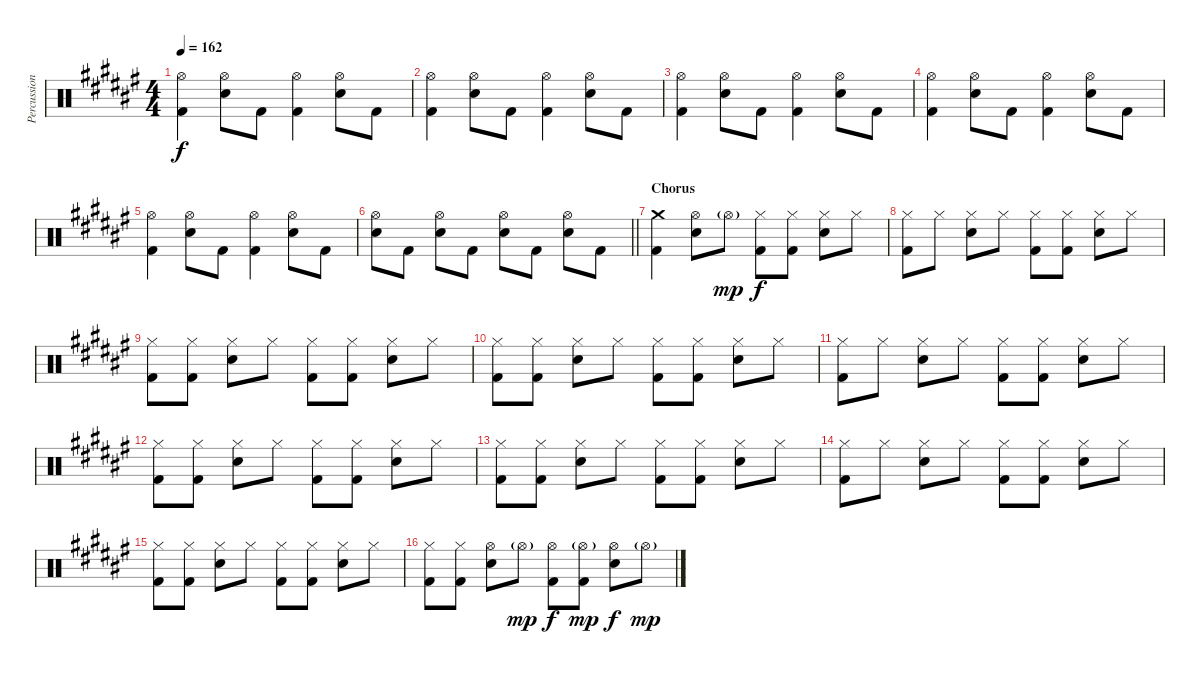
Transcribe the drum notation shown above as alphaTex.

\track ("Percussion" "Percussion") {instrument percussion}
\staff {score}
\articulation defaults
\ts (4 4)
\tempo 162
\clef neutral
\ks f#
("Hi-Hat (open)" "Kick (hit) 2").4{dy f} ("Hi-Hat (open)" "Electric Snare (hit)").8 "Kick (hit) 2".8 ("Hi-Hat (open)" "Kick (hit) 2").4 ("Hi-Hat (open)" "Electric Snare (hit)").8 "Kick (hit) 2".8 |
("Hi-Hat (open)" "Kick (hit) 2").4 ("Hi-Hat (open)" "Electric Snare (hit)").8 "Kick (hit) 2".8 ("Hi-Hat (open)" "Kick (hit) 2").4 ("Hi-Hat (open)" "Electric Snare (hit)").8 "Kick (hit) 2".8 |
("Hi-Hat (open)" "Kick (hit) 2").4 ("Hi-Hat (open)" "Electric Snare (hit)").8 "Kick (hit) 2".8 ("Hi-Hat (open)" "Kick (hit) 2").4 ("Hi-Hat (open)" "Electric Snare (hit)").8 "Kick (hit) 2".8 |
("Hi-Hat (open)" "Kick (hit) 2").4 ("Hi-Hat (open)" "Electric Snare (hit)").8 "Kick (hit) 2".8 ("Hi-Hat (open)" "Kick (hit) 2").4 ("Hi-Hat (open)" "Electric Snare (hit)").8 "Kick (hit) 2".8 |
("Hi-Hat (open)" "Kick (hit) 2").4 ("Hi-Hat (open)" "Electric Snare (hit)").8 "Kick (hit) 2".8 ("Hi-Hat (open)" "Kick (hit) 2").4 ("Hi-Hat (open)" "Electric Snare (hit)").8 "Kick (hit) 2".8 |
\barLineRight lightlight
("Hi-Hat (open)" "Electric Snare (hit)").8 "Kick (hit) 2".8 ("Hi-Hat (open)" "Electric Snare (hit)").8 "Kick (hit) 2".8 ("Hi-Hat (open)" "Electric Snare (hit)").8 "Kick (hit) 2".8 ("Hi-Hat (open)" "Electric Snare (hit)").8 "Kick (hit) 2".8 |
\section ("" "Chorus")
("Crash medium (hit)" "Kick (hit) 2").4 ("Hi-Hat (open)" "Electric Snare (hit)").8 "Hi-Hat (open)"{g}.8{dy mp} ("Hi-Hat (closed)" "Kick (hit) 2").8{dy f} ("Hi-Hat (closed)" "Kick (hit) 2").8 ("Hi-Hat (closed)" "Electric Snare (hit)").8 "Hi-Hat (closed)".8 |
("Hi-Hat (closed)" "Kick (hit) 2").8 "Hi-Hat (closed)".8 ("Hi-Hat (closed)" "Electric Snare (hit)").8 "Hi-Hat (closed)".8 ("Hi-Hat (closed)" "Kick (hit) 2").8 ("Hi-Hat (closed)" "Kick (hit) 2").8 ("Hi-Hat (closed)" "Electric Snare (hit)").8 "Hi-Hat (closed)".8 |
("Hi-Hat (closed)" "Kick (hit) 2").8 ("Hi-Hat (closed)" "Kick (hit) 2").8 ("Hi-Hat (closed)" "Electric Snare (hit)").8 "Hi-Hat (closed)".8 ("Hi-Hat (closed)" "Kick (hit) 2").8 ("Hi-Hat (closed)" "Kick (hit) 2").8 ("Hi-Hat (closed)" "Electric Snare (hit)").8 "Hi-Hat (closed)".8 |
("Hi-Hat (closed)" "Kick (hit) 2").8 ("Hi-Hat (closed)" "Kick (hit) 2").8 ("Hi-Hat (closed)" "Electric Snare (hit)").8 "Hi-Hat (closed)".8 ("Hi-Hat (closed)" "Kick (hit) 2").8 ("Hi-Hat (closed)" "Kick (hit) 2").8 ("Hi-Hat (closed)" "Electric Snare (hit)").8 "Hi-Hat (closed)".8 |
("Hi-Hat (closed)" "Kick (hit) 2").8 "Hi-Hat (closed)".8 ("Hi-Hat (closed)" "Electric Snare (hit)").8 "Hi-Hat (closed)".8 ("Hi-Hat (closed)" "Kick (hit) 2").8 ("Hi-Hat (closed)" "Kick (hit) 2").8 ("Hi-Hat (closed)" "Electric Snare (hit)").8 "Hi-Hat (closed)".8 |
("Hi-Hat (closed)" "Kick (hit) 2").8 ("Hi-Hat (closed)" "Kick (hit) 2").8 ("Hi-Hat (closed)" "Electric Snare (hit)").8 "Hi-Hat (closed)".8 ("Hi-Hat (closed)" "Kick (hit) 2").8 ("Hi-Hat (closed)" "Kick (hit) 2").8 ("Hi-Hat (closed)" "Electric Snare (hit)").8 "Hi-Hat (closed)".8 |
("Hi-Hat (closed)" "Kick (hit) 2").8 ("Hi-Hat (closed)" "Kick (hit) 2").8 ("Hi-Hat (closed)" "Electric Snare (hit)").8 "Hi-Hat (closed)".8 ("Hi-Hat (closed)" "Kick (hit) 2").8 ("Hi-Hat (closed)" "Kick (hit) 2").8 ("Hi-Hat (closed)" "Electric Snare (hit)").8 "Hi-Hat (closed)".8 |
("Hi-Hat (closed)" "Kick (hit) 2").8 "Hi-Hat (closed)".8 ("Hi-Hat (closed)" "Electric Snare (hit)").8 "Hi-Hat (closed)".8 ("Hi-Hat (closed)" "Kick (hit) 2").8 ("Hi-Hat (closed)" "Kick (hit) 2").8 ("Hi-Hat (closed)" "Electric Snare (hit)").8 "Hi-Hat (closed)".8 |
("Hi-Hat (closed)" "Kick (hit) 2").8 ("Hi-Hat (closed)" "Kick (hit) 2").8 ("Hi-Hat (closed)" "Electric Snare (hit)").8 "Hi-Hat (closed)".8 ("Hi-Hat (closed)" "Kick (hit) 2").8 ("Hi-Hat (closed)" "Kick (hit) 2").8 ("Hi-Hat (closed)" "Electric Snare (hit)").8 "Hi-Hat (closed)".8 |
("Hi-Hat (closed)" "Kick (hit) 2").8 ("Hi-Hat (closed)" "Kick (hit) 2").8 ("Hi-Hat (open)" "Electric Snare (hit)").8 "Hi-Hat (open)"{g}.8{dy mp} ("Hi-Hat (open)" "Kick (hit) 2").8{dy f} ("Hi-Hat (open)"{g} "Kick (hit) 2").8{dy mp} ("Hi-Hat (open)" "Electric Snare (hit)").8{dy f} "Hi-Hat (open)"{g}.8{dy mp}
